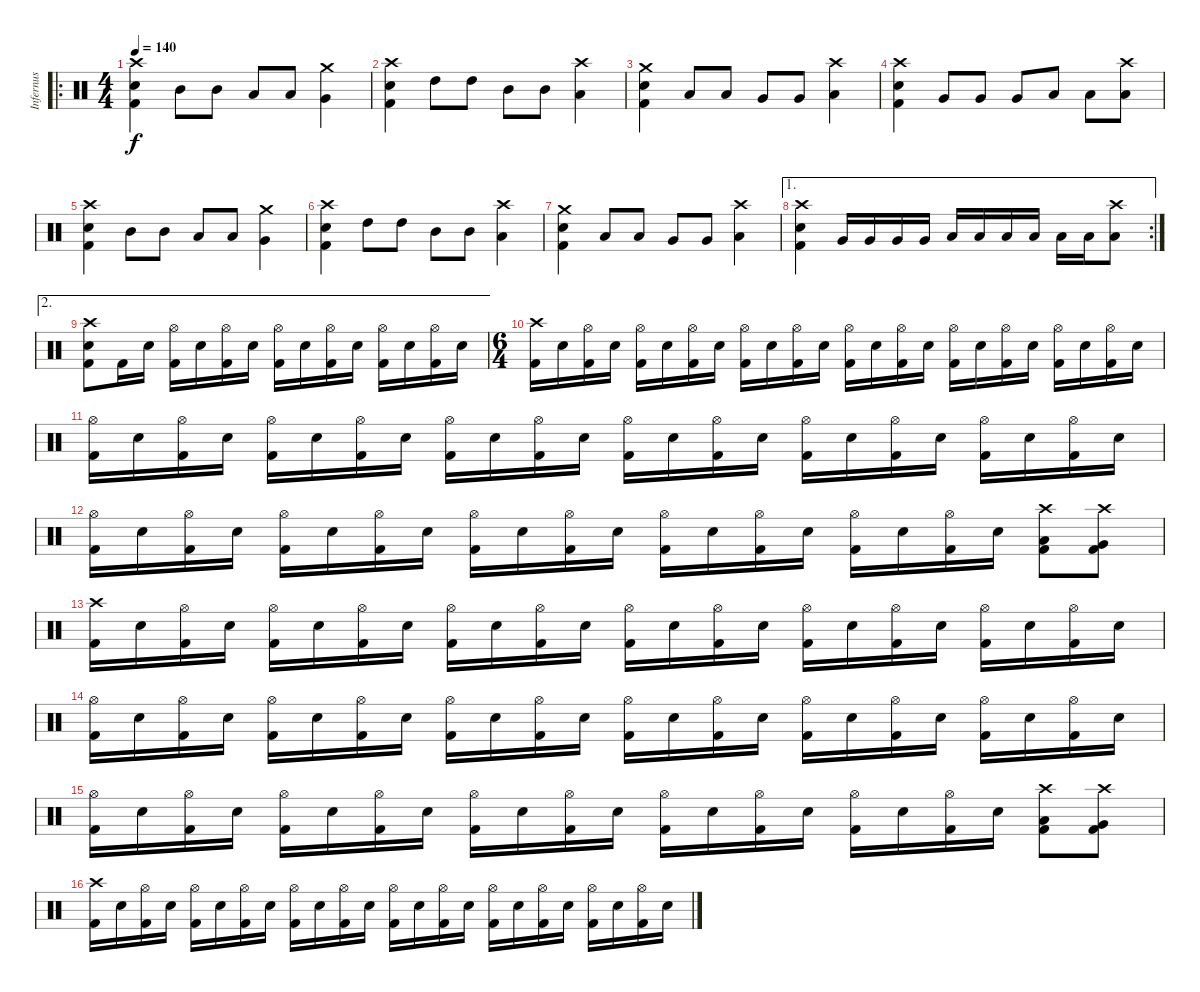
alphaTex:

\track ("Infernus" "Infernus") {instrument percussion}
\staff {score}
\articulation defaults
\ro
\ts (4 4)
\tempo 140
\clef neutral
\ks c
("Crash high (hit)" "Electric Snare (hit)" "Kick (hit) 2").4{dy f} "Mid Tom (hit)".8 "Mid Tom (hit)".8 "Low Tom (hit)".8 "Low Tom (hit)".8 ("Crash medium (hit)" "Very Low Tom (hit)").4 |
("Crash high (hit)" "Electric Snare (hit)" "Kick (hit) 2").4 "High Tom (hit)".8 "High Tom (hit)".8 "Mid Tom (hit)".8 "Mid Tom (hit)".8 ("Crash high (hit)" "Low Tom (hit)").4 |
("Crash medium (hit)" "Electric Snare (hit)" "Kick (hit) 2").4 "Low Tom (hit)".8 "Low Tom (hit)".8 "Very Low Tom (hit)".8 "Very Low Tom (hit)".8 ("Crash high (hit)" "Low Floor Tom (hit)").4 |
("Crash high (hit)" "Electric Snare (hit)" "Kick (hit) 2").4 "Very Low Tom (hit)".8 "Very Low Tom (hit)".8 "Very Low Tom (hit)".8 "Low Floor Tom (hit)".8 "Low Floor Tom (hit)".8 ("Crash high (hit)" "Low Floor Tom (hit)").8 |
("Crash high (hit)" "Electric Snare (hit)" "Kick (hit) 2").4 "Mid Tom (hit)".8 "Mid Tom (hit)".8 "Low Tom (hit)".8 "Low Tom (hit)".8 ("Crash medium (hit)" "Very Low Tom (hit)").4 |
("Crash high (hit)" "Electric Snare (hit)" "Kick (hit) 2").4 "High Tom (hit)".8 "High Tom (hit)".8 "Mid Tom (hit)".8 "Mid Tom (hit)".8 ("Crash high (hit)" "Low Tom (hit)").4 |
("Crash medium (hit)" "Electric Snare (hit)" "Kick (hit) 2").4 "Low Tom (hit)".8 "Low Tom (hit)".8 "Very Low Tom (hit)".8 "Very Low Tom (hit)".8 ("Crash high (hit)" "Low Floor Tom (hit)").4 |
\ae 1
\rc 2
("Crash high (hit)" "Electric Snare (hit)" "Kick (hit) 2").4 "Very Low Tom (hit)".16 "Very Low Tom (hit)".16 "Very Low Tom (hit)".16 "Very Low Tom (hit)".16 "Low Tom (hit)".16 "Low Tom (hit)".16 "Low Tom (hit)".16 "Low Tom (hit)".16 "Low Tom (hit)".16 "Low Tom (hit)".16 ("Crash high (hit)" "Low Tom (hit)").8 |
\ae 2
("Crash high (hit)" "Electric Snare (hit)" "Kick (hit) 2").8 "Kick (hit) 2".16 "Electric Snare (hit)".16 ("Hi-Hat (open)" "Kick (hit) 2").16 "Electric Snare (hit)".16 ("Hi-Hat (open)" "Kick (hit) 2").16 "Electric Snare (hit)".16 ("Hi-Hat (open)" "Kick (hit) 2").16 "Electric Snare (hit)".16 ("Hi-Hat (open)" "Kick (hit) 2").16 "Electric Snare (hit)".16 ("Hi-Hat (open)" "Kick (hit) 2").16 "Electric Snare (hit)".16 ("Hi-Hat (open)" "Kick (hit) 2").16 "Electric Snare (hit)".16 |
\ts (6 4)
("Crash high (hit)" "Kick (hit) 2").16 "Electric Snare (hit)".16 ("Hi-Hat (open)" "Kick (hit) 2").16 "Electric Snare (hit)".16 ("Hi-Hat (open)" "Kick (hit) 2").16 "Electric Snare (hit)".16 ("Hi-Hat (open)" "Kick (hit) 2").16 "Electric Snare (hit)".16 ("Hi-Hat (open)" "Kick (hit) 2").16 "Electric Snare (hit)".16 ("Hi-Hat (open)" "Kick (hit) 2").16 "Electric Snare (hit)".16 ("Hi-Hat (open)" "Kick (hit) 2").16 "Electric Snare (hit)".16 ("Hi-Hat (open)" "Kick (hit) 2").16 "Electric Snare (hit)".16 ("Hi-Hat (open)" "Kick (hit) 2").16 "Electric Snare (hit)".16 ("Hi-Hat (open)" "Kick (hit) 2").16 "Electric Snare (hit)".16 ("Hi-Hat (open)" "Kick (hit) 2").16 "Electric Snare (hit)".16 ("Hi-Hat (open)" "Kick (hit) 2").16 "Electric Snare (hit)".16 |
("Hi-Hat (open)" "Kick (hit) 2").16 "Electric Snare (hit)".16 ("Hi-Hat (open)" "Kick (hit) 2").16 "Electric Snare (hit)".16 ("Hi-Hat (open)" "Kick (hit) 2").16 "Electric Snare (hit)".16 ("Hi-Hat (open)" "Kick (hit) 2").16 "Electric Snare (hit)".16 ("Hi-Hat (open)" "Kick (hit) 2").16 "Electric Snare (hit)".16 ("Hi-Hat (open)" "Kick (hit) 2").16 "Electric Snare (hit)".16 ("Hi-Hat (open)" "Kick (hit) 2").16 "Electric Snare (hit)".16 ("Hi-Hat (open)" "Kick (hit) 2").16 "Electric Snare (hit)".16 ("Hi-Hat (open)" "Kick (hit) 2").16 "Electric Snare (hit)".16 ("Hi-Hat (open)" "Kick (hit) 2").16 "Electric Snare (hit)".16 ("Hi-Hat (open)" "Kick (hit) 2").16 "Electric Snare (hit)".16 ("Hi-Hat (open)" "Kick (hit) 2").16 "Electric Snare (hit)".16 |
("Hi-Hat (open)" "Kick (hit) 2").16 "Electric Snare (hit)".16 ("Hi-Hat (open)" "Kick (hit) 2").16 "Electric Snare (hit)".16 ("Hi-Hat (open)" "Kick (hit) 2").16 "Electric Snare (hit)".16 ("Hi-Hat (open)" "Kick (hit) 2").16 "Electric Snare (hit)".16 ("Hi-Hat (open)" "Kick (hit) 2").16 "Electric Snare (hit)".16 ("Hi-Hat (open)" "Kick (hit) 2").16 "Electric Snare (hit)".16 ("Hi-Hat (open)" "Kick (hit) 2").16 "Electric Snare (hit)".16 ("Hi-Hat (open)" "Kick (hit) 2").16 "Electric Snare (hit)".16 ("Hi-Hat (open)" "Kick (hit) 2").16 "Electric Snare (hit)".16 ("Hi-Hat (open)" "Kick (hit) 2").16 "Electric Snare (hit)".16 ("Crash high (hit)" "Low Tom (hit)" "Kick (hit) 2").8 ("Crash high (hit)" "Very Low Tom (hit)" "Kick (hit) 2").8 |
("Crash high (hit)" "Kick (hit) 2").16 "Electric Snare (hit)".16 ("Hi-Hat (open)" "Kick (hit) 2").16 "Electric Snare (hit)".16 ("Hi-Hat (open)" "Kick (hit) 2").16 "Electric Snare (hit)".16 ("Hi-Hat (open)" "Kick (hit) 2").16 "Electric Snare (hit)".16 ("Hi-Hat (open)" "Kick (hit) 2").16 "Electric Snare (hit)".16 ("Hi-Hat (open)" "Kick (hit) 2").16 "Electric Snare (hit)".16 ("Hi-Hat (open)" "Kick (hit) 2").16 "Electric Snare (hit)".16 ("Hi-Hat (open)" "Kick (hit) 2").16 "Electric Snare (hit)".16 ("Hi-Hat (open)" "Kick (hit) 2").16 "Electric Snare (hit)".16 ("Hi-Hat (open)" "Kick (hit) 2").16 "Electric Snare (hit)".16 ("Hi-Hat (open)" "Kick (hit) 2").16 "Electric Snare (hit)".16 ("Hi-Hat (open)" "Kick (hit) 2").16 "Electric Snare (hit)".16 |
("Hi-Hat (open)" "Kick (hit) 2").16 "Electric Snare (hit)".16 ("Hi-Hat (open)" "Kick (hit) 2").16 "Electric Snare (hit)".16 ("Hi-Hat (open)" "Kick (hit) 2").16 "Electric Snare (hit)".16 ("Hi-Hat (open)" "Kick (hit) 2").16 "Electric Snare (hit)".16 ("Hi-Hat (open)" "Kick (hit) 2").16 "Electric Snare (hit)".16 ("Hi-Hat (open)" "Kick (hit) 2").16 "Electric Snare (hit)".16 ("Hi-Hat (open)" "Kick (hit) 2").16 "Electric Snare (hit)".16 ("Hi-Hat (open)" "Kick (hit) 2").16 "Electric Snare (hit)".16 ("Hi-Hat (open)" "Kick (hit) 2").16 "Electric Snare (hit)".16 ("Hi-Hat (open)" "Kick (hit) 2").16 "Electric Snare (hit)".16 ("Hi-Hat (open)" "Kick (hit) 2").16 "Electric Snare (hit)".16 ("Hi-Hat (open)" "Kick (hit) 2").16 "Electric Snare (hit)".16 |
("Hi-Hat (open)" "Kick (hit) 2").16 "Electric Snare (hit)".16 ("Hi-Hat (open)" "Kick (hit) 2").16 "Electric Snare (hit)".16 ("Hi-Hat (open)" "Kick (hit) 2").16 "Electric Snare (hit)".16 ("Hi-Hat (open)" "Kick (hit) 2").16 "Electric Snare (hit)".16 ("Hi-Hat (open)" "Kick (hit) 2").16 "Electric Snare (hit)".16 ("Hi-Hat (open)" "Kick (hit) 2").16 "Electric Snare (hit)".16 ("Hi-Hat (open)" "Kick (hit) 2").16 "Electric Snare (hit)".16 ("Hi-Hat (open)" "Kick (hit) 2").16 "Electric Snare (hit)".16 ("Hi-Hat (open)" "Kick (hit) 2").16 "Electric Snare (hit)".16 ("Hi-Hat (open)" "Kick (hit) 2").16 "Electric Snare (hit)".16 ("Crash high (hit)" "Low Tom (hit)" "Kick (hit) 2").8 ("Crash high (hit)" "Very Low Tom (hit)" "Kick (hit) 2").8 |
("Crash high (hit)" "Kick (hit) 2").16 "Electric Snare (hit)".16 ("Hi-Hat (open)" "Kick (hit) 2").16 "Electric Snare (hit)".16 ("Hi-Hat (open)" "Kick (hit) 2").16 "Electric Snare (hit)".16 ("Hi-Hat (open)" "Kick (hit) 2").16 "Electric Snare (hit)".16 ("Hi-Hat (open)" "Kick (hit) 2").16 "Electric Snare (hit)".16 ("Hi-Hat (open)" "Kick (hit) 2").16 "Electric Snare (hit)".16 ("Hi-Hat (open)" "Kick (hit) 2").16 "Electric Snare (hit)".16 ("Hi-Hat (open)" "Kick (hit) 2").16 "Electric Snare (hit)".16 ("Hi-Hat (open)" "Kick (hit) 2").16 "Electric Snare (hit)".16 ("Hi-Hat (open)" "Kick (hit) 2").16 "Electric Snare (hit)".16 ("Hi-Hat (open)" "Kick (hit) 2").16 "Electric Snare (hit)".16 ("Hi-Hat (open)" "Kick (hit) 2").16 "Electric Snare (hit)".16
